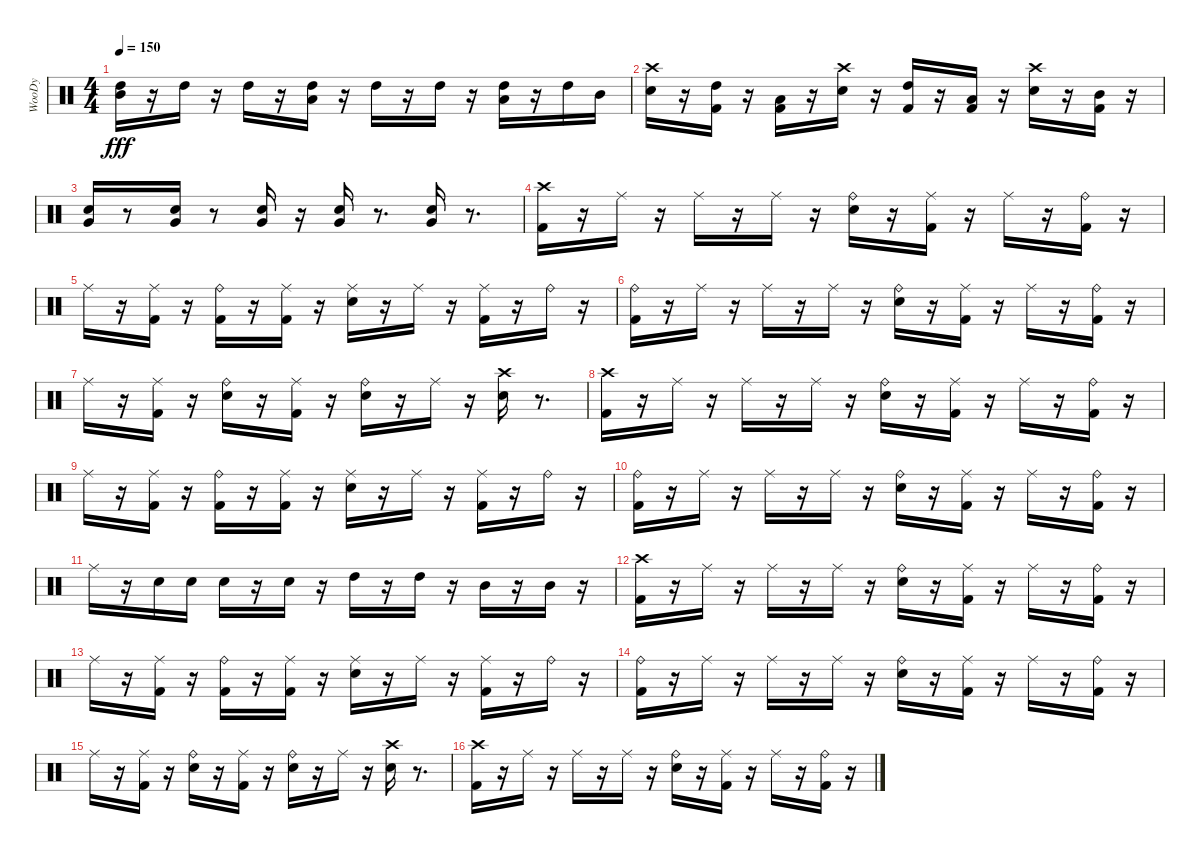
\track ("WooDy" "WooDy") {instrument percussion}
\staff {score}
\articulation defaults
\ts (4 4)
\tempo 150
\clef neutral
\ks c
("Mid Tom (hit)" "High Tom (hit)").16{dy fff} r.16 "High Tom (hit)".16 r.16 "High Tom (hit)".16 r.16 ("Low Tom (hit)" "High Tom (hit)").16 r.16 "High Tom (hit)".16 r.16 "High Tom (hit)".16 r.16 ("Low Tom (hit)" "High Tom (hit)").16 r.16 "High Tom (hit)".16 "Mid Tom (hit)".16 |
("Snare (hit) 2" "Crash high (hit)").16 r.16 ("Kick (hit) 2" "High Tom (hit)").16 r.16 ("Kick (hit) 2" "Low Tom (hit)").16 r.16 ("Snare (hit) 2" "Crash high (hit)").16 r.16 ("Kick (hit) 2" "High Tom (hit)").16 r.16 ("Kick (hit) 2" "Low Tom (hit)").16 r.16 ("Snare (hit) 2" "Crash high (hit)").16 r.16 ("Kick (hit) 2" "Mid Tom (hit)").16 r.16 |
("Snare (hit) 2" "Very Low Tom (hit)").16 r.8 ("Snare (hit) 2" "Very Low Tom (hit)").16 r.8 ("Snare (hit) 2" "Very Low Tom (hit)").16 r.16 ("Snare (hit) 2" "Very Low Tom (hit)").16 r.8{d} ("Snare (hit) 2" "Very Low Tom (hit)").16 r.8{d} |
("Kick (hit) 2" "Crash high (hit)").16 r.16 "Ride (middle)".16 r.16 "Ride (middle)".16 r.16 "Ride (middle)".16 r.16 ("Snare (hit) 2" "Ride (bell)").16 r.16 ("Kick (hit) 2" "Ride (middle)").16 r.16 "Ride (middle)".16 r.16 ("Kick (hit) 2" "Ride (bell)").16 r.16 |
"Ride (middle)".16 r.16 ("Kick (hit) 2" "Ride (middle)").16 r.16 ("Kick (hit) 2" "Ride (bell)").16 r.16 ("Kick (hit) 2" "Ride (middle)").16 r.16 ("Snare (hit) 2" "Ride (middle)").16 r.16 "Ride (middle)".16 r.16 ("Kick (hit) 2" "Ride (middle)").16 r.16 "Ride (bell)".16 r.16 |
("Kick (hit) 2" "Ride (bell)").16 r.16 "Ride (middle)".16 r.16 "Ride (middle)".16 r.16 "Ride (middle)".16 r.16 ("Snare (hit) 2" "Ride (bell)").16 r.16 ("Kick (hit) 2" "Ride (middle)").16 r.16 "Ride (middle)".16 r.16 ("Kick (hit) 2" "Ride (bell)").16 r.16 |
"Ride (middle)".16 r.16 ("Kick (hit) 2" "Ride (middle)").16 r.16 ("Snare (hit) 2" "Ride (bell)").16 r.16 ("Kick (hit) 2" "Ride (middle)").16 r.16 ("Snare (hit) 2" "Ride (bell)").16 r.16 "Ride (middle)".16 r.16 ("Snare (hit) 2" "Crash high (hit)").16 r.8{d} |
("Kick (hit) 2" "Crash high (hit)").16 r.16 "Ride (middle)".16 r.16 "Ride (middle)".16 r.16 "Ride (middle)".16 r.16 ("Snare (hit) 2" "Ride (bell)").16 r.16 ("Kick (hit) 2" "Ride (middle)").16 r.16 "Ride (middle)".16 r.16 ("Kick (hit) 2" "Ride (bell)").16 r.16 |
"Ride (middle)".16 r.16 ("Kick (hit) 2" "Ride (middle)").16 r.16 ("Kick (hit) 2" "Ride (bell)").16 r.16 ("Kick (hit) 2" "Ride (middle)").16 r.16 ("Snare (hit) 2" "Ride (middle)").16 r.16 "Ride (middle)".16 r.16 ("Kick (hit) 2" "Ride (middle)").16 r.16 "Ride (bell)".16 r.16 |
("Kick (hit) 2" "Ride (bell)").16 r.16 "Ride (middle)".16 r.16 "Ride (middle)".16 r.16 "Ride (middle)".16 r.16 ("Snare (hit) 2" "Ride (bell)").16 r.16 ("Kick (hit) 2" "Ride (middle)").16 r.16 "Ride (middle)".16 r.16 ("Kick (hit) 2" "Ride (bell)").16 r.16 |
"Ride (middle)".16 r.16 "Snare (hit) 2".16 "Snare (hit) 2".16 "Snare (hit) 2".16 r.16 "Snare (hit) 2".16 r.16 "High Tom (hit)".16 r.16 "High Tom (hit)".16 r.16 "Mid Tom (hit)".16 r.16 "Mid Tom (hit)".16 r.16 |
("Kick (hit) 2" "Crash high (hit)").16 r.16 "Ride (middle)".16 r.16 "Ride (middle)".16 r.16 "Ride (middle)".16 r.16 ("Snare (hit) 2" "Ride (bell)").16 r.16 ("Kick (hit) 2" "Ride (middle)").16 r.16 "Ride (middle)".16 r.16 ("Kick (hit) 2" "Ride (bell)").16 r.16 |
"Ride (middle)".16 r.16 ("Kick (hit) 2" "Ride (middle)").16 r.16 ("Kick (hit) 2" "Ride (bell)").16 r.16 ("Kick (hit) 2" "Ride (middle)").16 r.16 ("Snare (hit) 2" "Ride (middle)").16 r.16 "Ride (middle)".16 r.16 ("Kick (hit) 2" "Ride (middle)").16 r.16 "Ride (bell)".16 r.16 |
("Kick (hit) 2" "Ride (bell)").16 r.16 "Ride (middle)".16 r.16 "Ride (middle)".16 r.16 "Ride (middle)".16 r.16 ("Snare (hit) 2" "Ride (bell)").16 r.16 ("Kick (hit) 2" "Ride (middle)").16 r.16 "Ride (middle)".16 r.16 ("Kick (hit) 2" "Ride (bell)").16 r.16 |
"Ride (middle)".16 r.16 ("Kick (hit) 2" "Ride (middle)").16 r.16 ("Snare (hit) 2" "Ride (bell)").16 r.16 ("Kick (hit) 2" "Ride (middle)").16 r.16 ("Snare (hit) 2" "Ride (bell)").16 r.16 "Ride (middle)".16 r.16 ("Snare (hit) 2" "Crash high (hit)").16 r.8{d} |
("Kick (hit) 2" "Crash high (hit)").16 r.16 "Ride (middle)".16 r.16 "Ride (middle)".16 r.16 "Ride (middle)".16 r.16 ("Snare (hit) 2" "Ride (bell)").16 r.16 ("Kick (hit) 2" "Ride (middle)").16 r.16 "Ride (middle)".16 r.16 ("Kick (hit) 2" "Ride (bell)").16 r.16
